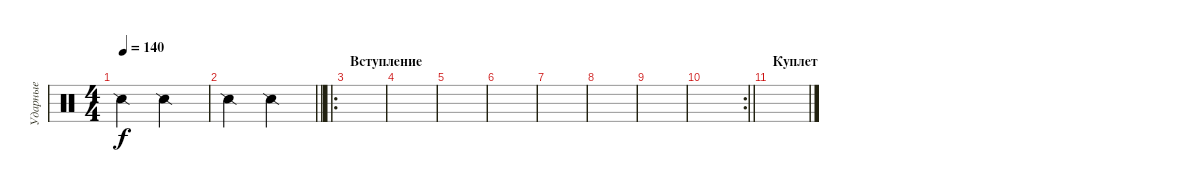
\track ("Ударные" "Ударные") {instrument percussion}
\staff {score}
\articulation defaults
\ts (4 4)
\tempo 140
\clef neutral
\ks c "Snare (side stick) 2".2{dy f} "Snare (side stick) 2".2
|
\barLineRight lightlight "Snare (side stick) 2".2 "Snare (side stick) 2".2
|
\ro
\section ("" "Вступление")
|
|
|
|
|
|
|
\rc 2
\barLineRight lightlight
|
\section ("" "Куплет")
